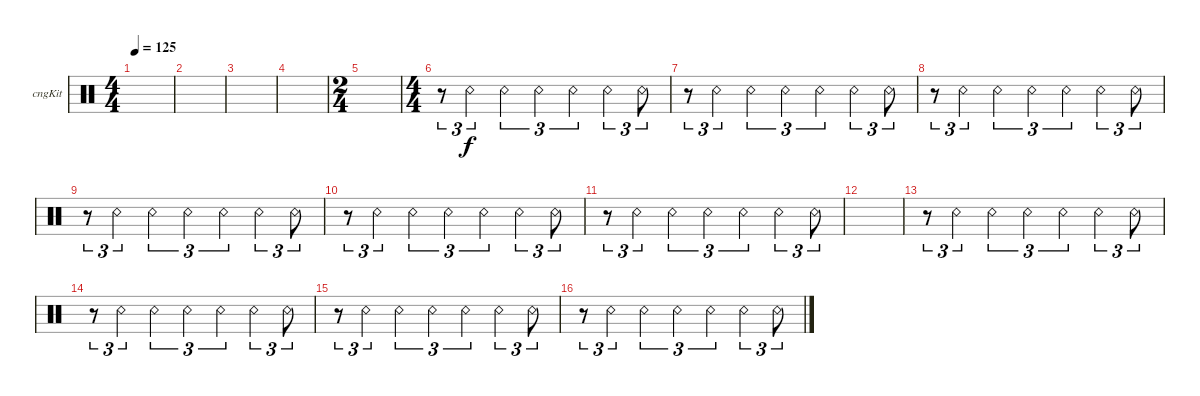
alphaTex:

\defaultSystemsLayout 4
\bracketExtendMode groupsimilarinstruments
\firstSystemTrackNameOrientation horizontal
\otherSystemsTrackNameOrientation horizontal
\track ("Congas" "cngKit") {instrument percussion}
\staff {score}
\articulation defaults
\ts (4 4)
\tempo 125
\clef neutral
\scale
0.333333
\ks c
|
\scale
0.333333 |
\scale
0.262911 |
\scale
0.262911 |
\ts (2 4)
\scale
0.474178 |
\ts (4 4)
\scale
0.474178 r.8{tu (3 2)} "Snare (rim shot)".4{tu (3 2)} "Snare (rim shot)".4{tu (3 2)} "Snare (rim shot)".4{tu (3 2)} "Snare (rim shot)".4{tu (3 2)} "Snare (rim shot)".4{tu (3 2)} "Snare (rim shot)".8{tu (3 2)} |
\scale
0.262911 r.8{tu (3 2)} "Snare (rim shot)".4{tu (3 2)} "Snare (rim shot)".4{tu (3 2)} "Snare (rim shot)".4{tu (3 2)} "Snare (rim shot)".4{tu (3 2)} "Snare (rim shot)".4{tu (3 2)} "Snare (rim shot)".8{tu (3 2)} |
\scale
0.262911 r.8{tu (3 2)} "Snare (rim shot)".4{tu (3 2)} "Snare (rim shot)".4{tu (3 2)} "Snare (rim shot)".4{tu (3 2)} "Snare (rim shot)".4{tu (3 2)} "Snare (rim shot)".4{tu (3 2)} "Snare (rim shot)".8{tu (3 2)} |
\scale
0.333333 r.8{tu (3 2)} "Snare (rim shot)".4{tu (3 2)} "Snare (rim shot)".4{tu (3 2)} "Snare (rim shot)".4{tu (3 2)} "Snare (rim shot)".4{tu (3 2)} "Snare (rim shot)".4{tu (3 2)} "Snare (rim shot)".8{tu (3 2)} |
\scale
0.333333 r.8{tu (3 2)} "Snare (rim shot)".4{tu (3 2)} "Snare (rim shot)".4{tu (3 2)} "Snare (rim shot)".4{tu (3 2)} "Snare (rim shot)".4{tu (3 2)} "Snare (rim shot)".4{tu (3 2)} "Snare (rim shot)".8{tu (3 2)} |
\scale
0.333333 r.8{tu (3 2)} "Snare (rim shot)".4{tu (3 2)} "Snare (rim shot)".4{tu (3 2)} "Snare (rim shot)".4{tu (3 2)} "Snare (rim shot)".4{tu (3 2)} "Snare (rim shot)".4{tu (3 2)} "Snare (rim shot)".8{tu (3 2)} |
\scale
0.333333 |
\scale
0.333333 r.8{tu (3 2)} "Snare (rim shot)".4{tu (3 2)} "Snare (rim shot)".4{tu (3 2)} "Snare (rim shot)".4{tu (3 2)} "Snare (rim shot)".4{tu (3 2)} "Snare (rim shot)".4{tu (3 2)} "Snare (rim shot)".8{tu (3 2)} |
\scale
0.333333 r.8{tu (3 2)} "Snare (rim shot)".4{tu (3 2)} "Snare (rim shot)".4{tu (3 2)} "Snare (rim shot)".4{tu (3 2)} "Snare (rim shot)".4{tu (3 2)} "Snare (rim shot)".4{tu (3 2)} "Snare (rim shot)".8{tu (3 2)} |
\scale
0.333333 r.8{tu (3 2)} "Snare (rim shot)".4{tu (3 2)} "Snare (rim shot)".4{tu (3 2)} "Snare (rim shot)".4{tu (3 2)} "Snare (rim shot)".4{tu (3 2)} "Snare (rim shot)".4{tu (3 2)} "Snare (rim shot)".8{tu (3 2)} |
\scale
0.333333 r.8{tu (3 2)} "Snare (rim shot)".4{tu (3 2)} "Snare (rim shot)".4{tu (3 2)} "Snare (rim shot)".4{tu (3 2)} "Snare (rim shot)".4{tu (3 2)} "Snare (rim shot)".4{tu (3 2)} "Snare (rim shot)".8{tu (3 2)}
